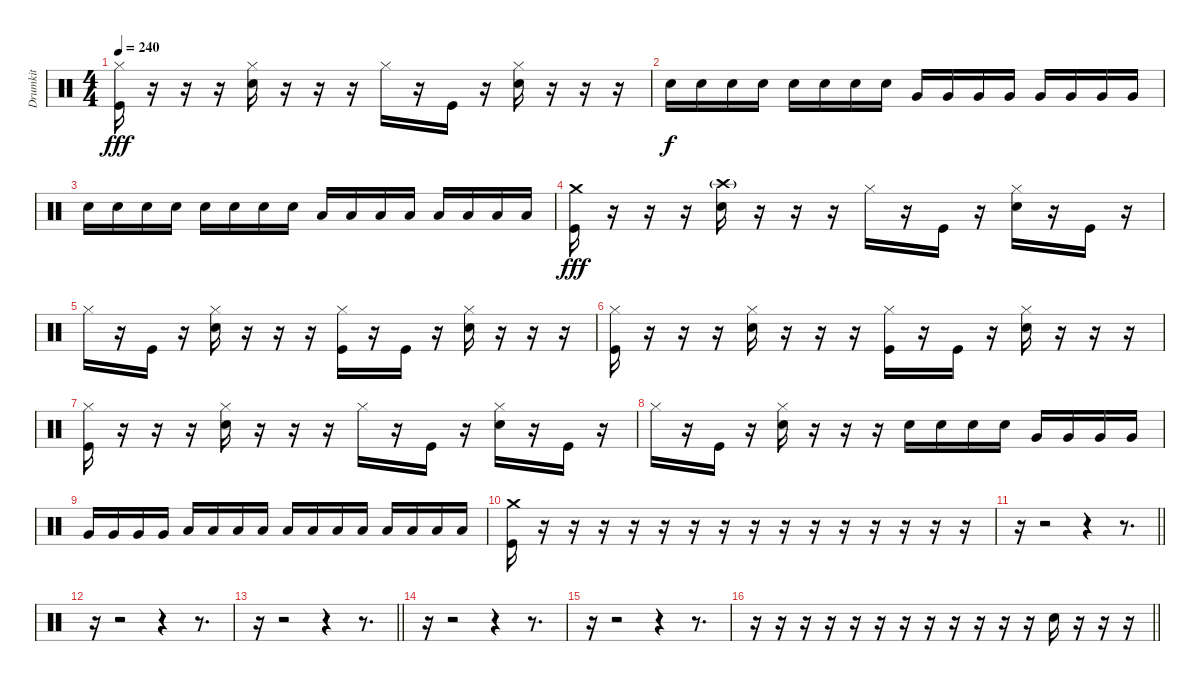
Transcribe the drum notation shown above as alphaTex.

\track ("Drumkit" "Drumkit") {instrument percussion}
\staff {score}
\articulation defaults
\ts (4 4)
\tempo 240
\clef neutral
\ks c
("Hi-Hat (closed)" "Kick (hit)").16{dy fff} r.16 r.16 r.16 ("Hi-Hat (closed)" "Snare (hit) 2").16 r.16 r.16 r.16 "Hi-Hat (closed)".16 r.16 "Kick (hit)".16 r.16 ("Hi-Hat (closed)" "Snare (hit) 2").16 r.16 r.16 r.16 |
"Snare (hit) 2".16{dy f} "Snare (hit) 2".16 "Snare (hit) 2".16 "Snare (hit) 2".16 "Snare (hit) 2".16 "Snare (hit) 2".16 "Snare (hit) 2".16 "Snare (hit) 2".16 "Very Low Tom (hit)".16 "Very Low Tom (hit)".16 "Very Low Tom (hit)".16 "Very Low Tom (hit)".16 "Very Low Tom (hit)".16 "Very Low Tom (hit)".16 "Very Low Tom (hit)".16 "Very Low Tom (hit)".16 |
"Snare (hit) 2".16 "Snare (hit) 2".16 "Snare (hit) 2".16 "Snare (hit) 2".16 "Snare (hit) 2".16 "Snare (hit) 2".16 "Snare (hit) 2".16 "Snare (hit) 2".16 "Low Floor Tom (hit)".16 "Low Floor Tom (hit)".16 "Low Floor Tom (hit)".16 "Low Floor Tom (hit)".16 "Low Floor Tom (hit)".16 "Low Floor Tom (hit)".16 "Low Floor Tom (hit)".16 "Low Floor Tom (hit)".16 |
("Crash medium (hit)" "Kick (hit)").16{dy fff} r.16 r.16 r.16 ("Crash high (hit)"{g} "Snare (hit) 2").16 r.16 r.16 r.16 "Hi-Hat (closed)".16 r.16 "Kick (hit)".16 r.16 ("Hi-Hat (closed)" "Snare (hit) 2").16 r.16 "Kick (hit)".16 r.16 |
"Hi-Hat (closed)".16 r.16 "Kick (hit)".16 r.16 ("Hi-Hat (closed)" "Snare (hit) 2").16 r.16 r.16 r.16 ("Hi-Hat (closed)" "Kick (hit)").16 r.16 "Kick (hit)".16 r.16 ("Hi-Hat (closed)" "Snare (hit) 2").16 r.16 r.16 r.16 |
("Hi-Hat (closed)" "Kick (hit)").16 r.16 r.16 r.16 ("Hi-Hat (closed)" "Snare (hit) 2").16 r.16 r.16 r.16 ("Hi-Hat (closed)" "Kick (hit)").16 r.16 "Kick (hit)".16 r.16 ("Hi-Hat (closed)" "Snare (hit) 2").16 r.16 r.16 r.16 |
("Hi-Hat (closed)" "Kick (hit)").16 r.16 r.16 r.16 ("Hi-Hat (closed)" "Snare (hit) 2").16 r.16 r.16 r.16 "Hi-Hat (closed)".16 r.16 "Kick (hit)".16 r.16 ("Hi-Hat (closed)" "Snare (hit) 2").16 r.16 "Kick (hit)".16 r.16 |
"Hi-Hat (closed)".16 r.16 "Kick (hit)".16 r.16 ("Hi-Hat (closed)" "Snare (hit) 2").16 r.16 r.16 r.16 "Snare (hit) 2".16 "Snare (hit) 2".16 "Snare (hit) 2".16 "Snare (hit) 2".16 "Very Low Tom (hit)".16 "Very Low Tom (hit)".16 "Very Low Tom (hit)".16 "Very Low Tom (hit)".16 |
"Very Low Tom (hit)".16 "Very Low Tom (hit)".16 "Very Low Tom (hit)".16 "Very Low Tom (hit)".16 "Low Floor Tom (hit)".16 "Low Floor Tom (hit)".16 "Low Floor Tom (hit)".16 "Low Floor Tom (hit)".16 "Low Floor Tom (hit)".16 "Low Floor Tom (hit)".16 "Low Floor Tom (hit)".16 "Low Floor Tom (hit)".16 "Low Floor Tom (hit)".16 "Low Floor Tom (hit)".16 "Low Floor Tom (hit)".16 "Low Floor Tom (hit)".16 |
("Crash medium (hit)" "Kick (hit)").16 r.16 r.16 r.16 r.16 r.16 r.16 r.16 r.16 r.16 r.16 r.16 r.16 r.16 r.16 r.16 |
\barLineRight lightlight
r.16 r.2 r.4 r.8{d} |
r.16 r.2 r.4 r.8{d} |
\barLineRight lightlight
r.16 r.2 r.4 r.8{d} |
r.16 r.2 r.4 r.8{d} |
r.16 r.2 r.4 r.8{d} |
\barLineRight lightlight
r.16 r.16 r.16 r.16 r.16 r.16 r.16 r.16 r.16 r.16 r.16 r.16 "Snare (hit) 2".16 r.16 r.16 r.16
